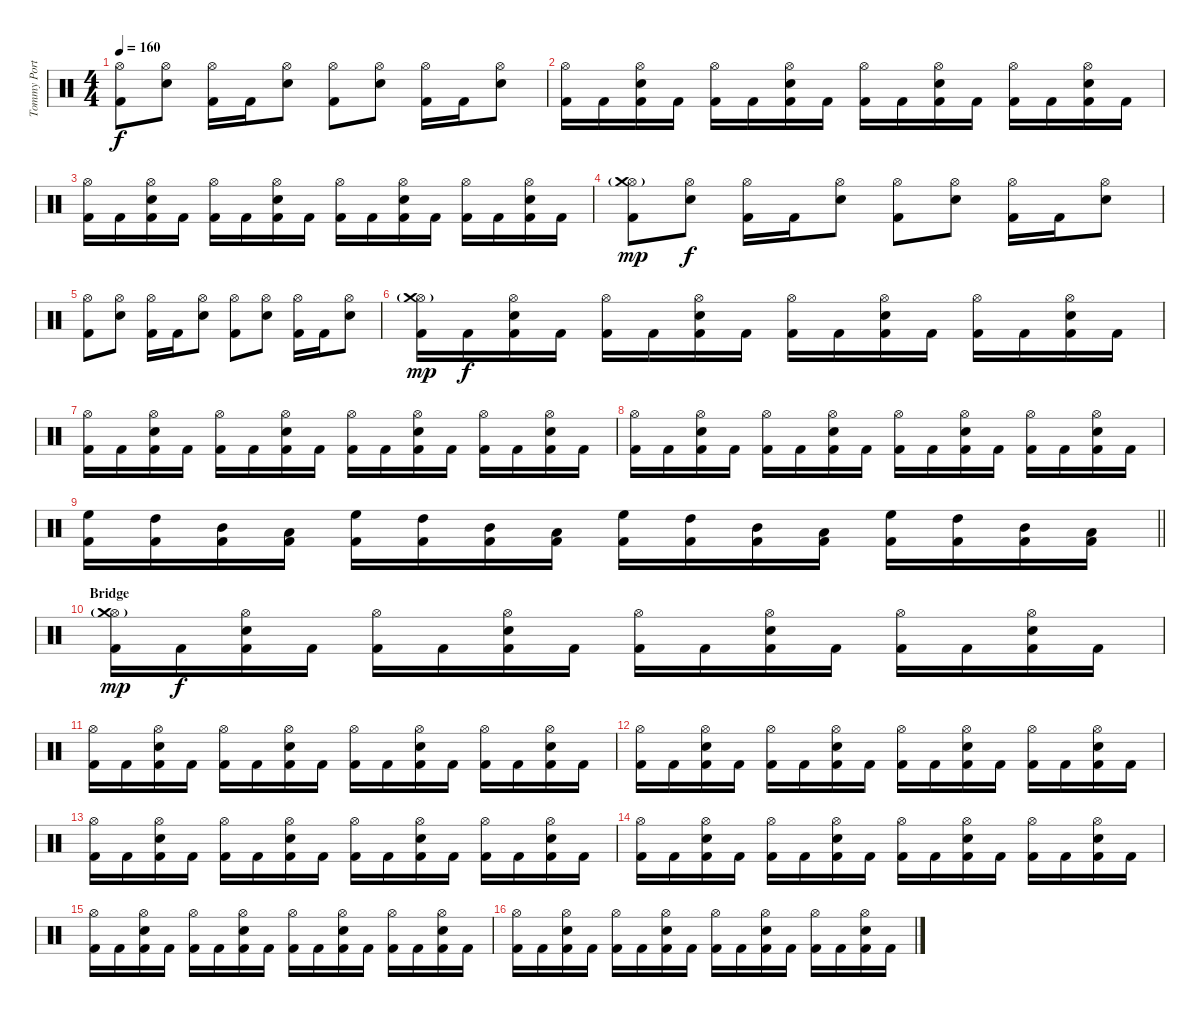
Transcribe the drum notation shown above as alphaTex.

\track ("Tommy Portino" "Tommy Port") {instrument percussion}
\staff {score}
\articulation defaults
\ts (4 4)
\tempo 160
\clef neutral
\ks c
("Hi-Hat (open)" "Kick (hit) 2").8{dy f} ("Hi-Hat (open)" "Snare (hit) 2").8 ("Hi-Hat (open)" "Kick (hit) 2").16 "Kick (hit) 2".16 ("Hi-Hat (open)" "Snare (hit) 2").8 ("Hi-Hat (open)" "Kick (hit) 2").8 ("Hi-Hat (open)" "Snare (hit) 2").8 ("Hi-Hat (open)" "Kick (hit) 2").16 "Kick (hit) 2".16 ("Hi-Hat (open)" "Snare (hit) 2").8 |
("Hi-Hat (open)" "Kick (hit) 2").16 "Kick (hit) 2".16 ("Hi-Hat (open)" "Snare (hit) 2" "Kick (hit) 2").16 "Kick (hit) 2".16 ("Hi-Hat (open)" "Kick (hit) 2").16 "Kick (hit) 2".16 ("Hi-Hat (open)" "Snare (hit) 2" "Kick (hit) 2").16 "Kick (hit) 2".16 ("Hi-Hat (open)" "Kick (hit) 2").16 "Kick (hit) 2".16 ("Hi-Hat (open)" "Snare (hit) 2" "Kick (hit) 2").16 "Kick (hit) 2".16 ("Hi-Hat (open)" "Kick (hit) 2").16 "Kick (hit) 2".16 ("Hi-Hat (open)" "Snare (hit) 2" "Kick (hit) 2").16 "Kick (hit) 2".16 |
("Hi-Hat (open)" "Kick (hit) 2").16 "Kick (hit) 2".16 ("Hi-Hat (open)" "Snare (hit) 2" "Kick (hit) 2").16 "Kick (hit) 2".16 ("Hi-Hat (open)" "Kick (hit) 2").16 "Kick (hit) 2".16 ("Hi-Hat (open)" "Snare (hit) 2" "Kick (hit) 2").16 "Kick (hit) 2".16 ("Hi-Hat (open)" "Kick (hit) 2").16 "Kick (hit) 2".16 ("Hi-Hat (open)" "Snare (hit) 2" "Kick (hit) 2").16 "Kick (hit) 2".16 ("Hi-Hat (open)" "Kick (hit) 2").16 "Kick (hit) 2".16 ("Hi-Hat (open)" "Snare (hit) 2" "Kick (hit) 2").16 "Kick (hit) 2".16 |
("Hi-Hat (open)"{g} "Crash medium (hit)" "Kick (hit) 2").8{dy mp} ("Hi-Hat (open)" "Snare (hit) 2").8{dy f} ("Hi-Hat (open)" "Kick (hit) 2").16 "Kick (hit) 2".16 ("Hi-Hat (open)" "Snare (hit) 2").8 ("Hi-Hat (open)" "Kick (hit) 2").8 ("Hi-Hat (open)" "Snare (hit) 2").8 ("Hi-Hat (open)" "Kick (hit) 2").16 "Kick (hit) 2".16 ("Hi-Hat (open)" "Snare (hit) 2").8 |
("Hi-Hat (open)" "Kick (hit) 2").8 ("Hi-Hat (open)" "Snare (hit) 2").8 ("Hi-Hat (open)" "Kick (hit) 2").16 "Kick (hit) 2".16 ("Hi-Hat (open)" "Snare (hit) 2").8 ("Hi-Hat (open)" "Kick (hit) 2").8 ("Hi-Hat (open)" "Snare (hit) 2").8 ("Hi-Hat (open)" "Kick (hit) 2").16 "Kick (hit) 2".16 ("Hi-Hat (open)" "Snare (hit) 2").8 |
("Hi-Hat (open)"{g} "Crash medium (hit)" "Kick (hit) 2").16{dy mp} "Kick (hit) 2".16{dy f} ("Hi-Hat (open)" "Snare (hit) 2" "Kick (hit) 2").16 "Kick (hit) 2".16 ("Hi-Hat (open)" "Kick (hit) 2").16 "Kick (hit) 2".16 ("Hi-Hat (open)" "Snare (hit) 2" "Kick (hit) 2").16 "Kick (hit) 2".16 ("Hi-Hat (open)" "Kick (hit) 2").16 "Kick (hit) 2".16 ("Hi-Hat (open)" "Snare (hit) 2" "Kick (hit) 2").16 "Kick (hit) 2".16 ("Hi-Hat (open)" "Kick (hit) 2").16 "Kick (hit) 2".16 ("Hi-Hat (open)" "Snare (hit) 2" "Kick (hit) 2").16 "Kick (hit) 2".16 |
("Hi-Hat (open)" "Kick (hit) 2").16 "Kick (hit) 2".16 ("Hi-Hat (open)" "Snare (hit) 2" "Kick (hit) 2").16 "Kick (hit) 2".16 ("Hi-Hat (open)" "Kick (hit) 2").16 "Kick (hit) 2".16 ("Hi-Hat (open)" "Snare (hit) 2" "Kick (hit) 2").16 "Kick (hit) 2".16 ("Hi-Hat (open)" "Kick (hit) 2").16 "Kick (hit) 2".16 ("Hi-Hat (open)" "Snare (hit) 2" "Kick (hit) 2").16 "Kick (hit) 2".16 ("Hi-Hat (open)" "Kick (hit) 2").16 "Kick (hit) 2".16 ("Hi-Hat (open)" "Snare (hit) 2" "Kick (hit) 2").16 "Kick (hit) 2".16 |
("Hi-Hat (open)" "Kick (hit) 2").16 "Kick (hit) 2".16 ("Hi-Hat (open)" "Snare (hit) 2" "Kick (hit) 2").16 "Kick (hit) 2".16 ("Hi-Hat (open)" "Kick (hit) 2").16 "Kick (hit) 2".16 ("Hi-Hat (open)" "Snare (hit) 2" "Kick (hit) 2").16 "Kick (hit) 2".16 ("Hi-Hat (open)" "Kick (hit) 2").16 "Kick (hit) 2".16 ("Hi-Hat (open)" "Snare (hit) 2" "Kick (hit) 2").16 "Kick (hit) 2".16 ("Hi-Hat (open)" "Kick (hit) 2").16 "Kick (hit) 2".16 ("Hi-Hat (open)" "Snare (hit) 2" "Kick (hit) 2").16 "Kick (hit) 2".16 |
\barLineRight lightlight
("High Floor Tom (hit)" "Kick (hit) 2").16 ("High Tom (hit)" "Kick (hit) 2").16 ("Mid Tom (hit)" "Kick (hit) 2").16 ("Low Tom (hit)" "Kick (hit) 2").16 ("High Floor Tom (hit)" "Kick (hit) 2").16 ("High Tom (hit)" "Kick (hit) 2").16 ("Mid Tom (hit)" "Kick (hit) 2").16 ("Low Tom (hit)" "Kick (hit) 2").16 ("High Floor Tom (hit)" "Kick (hit) 2").16 ("High Tom (hit)" "Kick (hit) 2").16 ("Mid Tom (hit)" "Kick (hit) 2").16 ("Low Tom (hit)" "Kick (hit) 2").16 ("High Floor Tom (hit)" "Kick (hit) 2").16 ("High Tom (hit)" "Kick (hit) 2").16 ("Mid Tom (hit)" "Kick (hit) 2").16 ("Low Tom (hit)" "Kick (hit) 2").16 |
\section ("" "Bridge")
("Hi-Hat (open)"{g} "Crash medium (hit)" "Kick (hit) 2").16{dy mp} "Kick (hit) 2".16{dy f} ("Hi-Hat (open)" "Snare (hit) 2" "Kick (hit) 2").16 "Kick (hit) 2".16 ("Hi-Hat (open)" "Kick (hit) 2").16 "Kick (hit) 2".16 ("Hi-Hat (open)" "Snare (hit) 2" "Kick (hit) 2").16 "Kick (hit) 2".16 ("Hi-Hat (open)" "Kick (hit) 2").16 "Kick (hit) 2".16 ("Hi-Hat (open)" "Snare (hit) 2" "Kick (hit) 2").16 "Kick (hit) 2".16 ("Hi-Hat (open)" "Kick (hit) 2").16 "Kick (hit) 2".16 ("Hi-Hat (open)" "Snare (hit) 2" "Kick (hit) 2").16 "Kick (hit) 2".16 |
("Hi-Hat (open)" "Kick (hit) 2").16 "Kick (hit) 2".16 ("Hi-Hat (open)" "Snare (hit) 2" "Kick (hit) 2").16 "Kick (hit) 2".16 ("Hi-Hat (open)" "Kick (hit) 2").16 "Kick (hit) 2".16 ("Hi-Hat (open)" "Snare (hit) 2" "Kick (hit) 2").16 "Kick (hit) 2".16 ("Hi-Hat (open)" "Kick (hit) 2").16 "Kick (hit) 2".16 ("Hi-Hat (open)" "Snare (hit) 2" "Kick (hit) 2").16 "Kick (hit) 2".16 ("Hi-Hat (open)" "Kick (hit) 2").16 "Kick (hit) 2".16 ("Hi-Hat (open)" "Snare (hit) 2" "Kick (hit) 2").16 "Kick (hit) 2".16 |
("Hi-Hat (open)" "Kick (hit) 2").16 "Kick (hit) 2".16 ("Hi-Hat (open)" "Snare (hit) 2" "Kick (hit) 2").16 "Kick (hit) 2".16 ("Hi-Hat (open)" "Kick (hit) 2").16 "Kick (hit) 2".16 ("Hi-Hat (open)" "Snare (hit) 2" "Kick (hit) 2").16 "Kick (hit) 2".16 ("Hi-Hat (open)" "Kick (hit) 2").16 "Kick (hit) 2".16 ("Hi-Hat (open)" "Snare (hit) 2" "Kick (hit) 2").16 "Kick (hit) 2".16 ("Hi-Hat (open)" "Kick (hit) 2").16 "Kick (hit) 2".16 ("Hi-Hat (open)" "Snare (hit) 2" "Kick (hit) 2").16 "Kick (hit) 2".16 |
("Hi-Hat (open)" "Kick (hit) 2").16 "Kick (hit) 2".16 ("Hi-Hat (open)" "Snare (hit) 2" "Kick (hit) 2").16 "Kick (hit) 2".16 ("Hi-Hat (open)" "Kick (hit) 2").16 "Kick (hit) 2".16 ("Hi-Hat (open)" "Snare (hit) 2" "Kick (hit) 2").16 "Kick (hit) 2".16 ("Hi-Hat (open)" "Kick (hit) 2").16 "Kick (hit) 2".16 ("Hi-Hat (open)" "Snare (hit) 2" "Kick (hit) 2").16 "Kick (hit) 2".16 ("Hi-Hat (open)" "Kick (hit) 2").16 "Kick (hit) 2".16 ("Hi-Hat (open)" "Snare (hit) 2" "Kick (hit) 2").16 "Kick (hit) 2".16 |
("Hi-Hat (open)" "Kick (hit) 2").16 "Kick (hit) 2".16 ("Hi-Hat (open)" "Snare (hit) 2" "Kick (hit) 2").16 "Kick (hit) 2".16 ("Hi-Hat (open)" "Kick (hit) 2").16 "Kick (hit) 2".16 ("Hi-Hat (open)" "Snare (hit) 2" "Kick (hit) 2").16 "Kick (hit) 2".16 ("Hi-Hat (open)" "Kick (hit) 2").16 "Kick (hit) 2".16 ("Hi-Hat (open)" "Snare (hit) 2" "Kick (hit) 2").16 "Kick (hit) 2".16 ("Hi-Hat (open)" "Kick (hit) 2").16 "Kick (hit) 2".16 ("Hi-Hat (open)" "Snare (hit) 2" "Kick (hit) 2").16 "Kick (hit) 2".16 |
("Hi-Hat (open)" "Kick (hit) 2").16 "Kick (hit) 2".16 ("Hi-Hat (open)" "Snare (hit) 2" "Kick (hit) 2").16 "Kick (hit) 2".16 ("Hi-Hat (open)" "Kick (hit) 2").16 "Kick (hit) 2".16 ("Hi-Hat (open)" "Snare (hit) 2" "Kick (hit) 2").16 "Kick (hit) 2".16 ("Hi-Hat (open)" "Kick (hit) 2").16 "Kick (hit) 2".16 ("Hi-Hat (open)" "Snare (hit) 2" "Kick (hit) 2").16 "Kick (hit) 2".16 ("Hi-Hat (open)" "Kick (hit) 2").16 "Kick (hit) 2".16 ("Hi-Hat (open)" "Snare (hit) 2" "Kick (hit) 2").16 "Kick (hit) 2".16 |
("Hi-Hat (open)" "Kick (hit) 2").16 "Kick (hit) 2".16 ("Hi-Hat (open)" "Snare (hit) 2" "Kick (hit) 2").16 "Kick (hit) 2".16 ("Hi-Hat (open)" "Kick (hit) 2").16 "Kick (hit) 2".16 ("Hi-Hat (open)" "Snare (hit) 2" "Kick (hit) 2").16 "Kick (hit) 2".16 ("Hi-Hat (open)" "Kick (hit) 2").16 "Kick (hit) 2".16 ("Hi-Hat (open)" "Snare (hit) 2" "Kick (hit) 2").16 "Kick (hit) 2".16 ("Hi-Hat (open)" "Kick (hit) 2").16 "Kick (hit) 2".16 ("Hi-Hat (open)" "Snare (hit) 2" "Kick (hit) 2").16 "Kick (hit) 2".16
